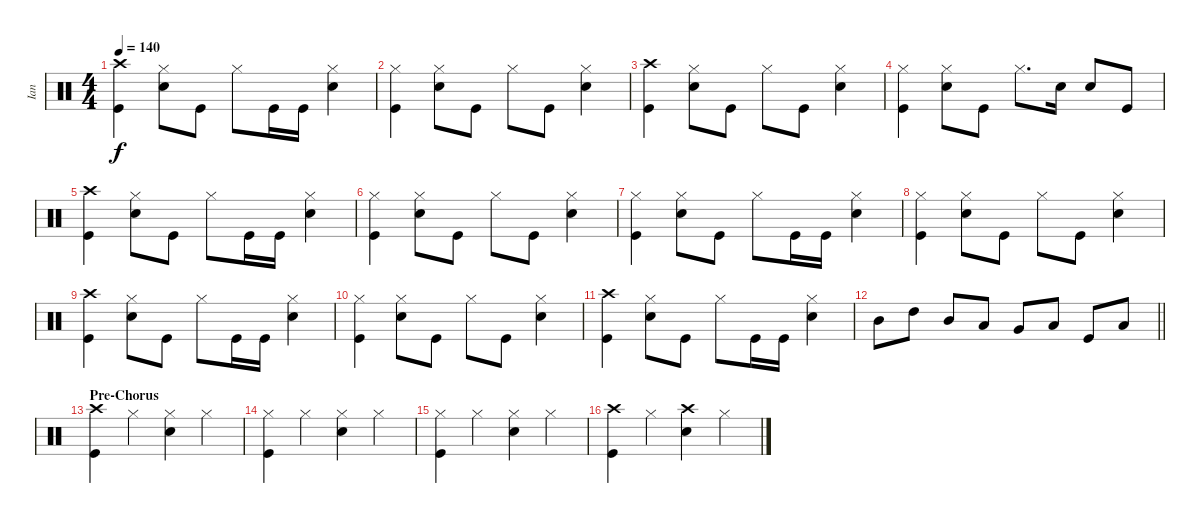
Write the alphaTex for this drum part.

\track ("Ian" "Ian") {instrument percussion}
\staff {score}
\articulation defaults
\ts (4 4)
\tempo 140
\clef neutral
\ks c
("Crash high (hit)" "Kick (hit)").4{dy f} ("Hi-Hat (closed)" "Snare (hit) 2").8 "Kick (hit)".8 "Hi-Hat (closed)".8 "Kick (hit)".16 "Kick (hit)".16 ("Hi-Hat (closed)" "Snare (hit) 2").4 |
("Hi-Hat (closed)" "Kick (hit)").4 ("Hi-Hat (closed)" "Snare (hit) 2").8 "Kick (hit)".8 "Hi-Hat (closed)".8 "Kick (hit)".8 ("Hi-Hat (closed)" "Snare (hit) 2").4 |
("Crash high (hit)" "Kick (hit)").4 ("Hi-Hat (closed)" "Snare (hit) 2").8 "Kick (hit)".8 "Hi-Hat (closed)".8 "Kick (hit)".8 ("Hi-Hat (closed)" "Snare (hit) 2").4 |
("Hi-Hat (closed)" "Kick (hit)").4 ("Hi-Hat (closed)" "Snare (hit) 2").8 "Kick (hit)".8 "Hi-Hat (closed)".8{d} "Snare (hit) 2".16 "Snare (hit) 2".8 "Kick (hit)".8 |
("Crash high (hit)" "Kick (hit)").4 ("Hi-Hat (closed)" "Snare (hit) 2").8 "Kick (hit)".8 "Hi-Hat (closed)".8 "Kick (hit)".16 "Kick (hit)".16 ("Hi-Hat (closed)" "Snare (hit) 2").4 |
("Hi-Hat (closed)" "Kick (hit)").4 ("Hi-Hat (closed)" "Snare (hit) 2").8 "Kick (hit)".8 "Hi-Hat (closed)".8 "Kick (hit)".8 ("Hi-Hat (closed)" "Snare (hit) 2").4 |
("Hi-Hat (closed)" "Kick (hit)").4 ("Hi-Hat (closed)" "Snare (hit) 2").8 "Kick (hit)".8 "Hi-Hat (closed)".8 "Kick (hit)".16 "Kick (hit)".16 ("Hi-Hat (closed)" "Snare (hit) 2").4 |
("Hi-Hat (closed)" "Kick (hit)").4 ("Hi-Hat (closed)" "Snare (hit) 2").8 "Kick (hit)".8 "Hi-Hat (closed)".8 "Kick (hit)".8 ("Hi-Hat (closed)" "Snare (hit) 2").4 |
("Crash high (hit)" "Kick (hit)").4 ("Hi-Hat (closed)" "Snare (hit) 2").8 "Kick (hit)".8 "Hi-Hat (closed)".8 "Kick (hit)".16 "Kick (hit)".16 ("Hi-Hat (closed)" "Snare (hit) 2").4 |
("Hi-Hat (closed)" "Kick (hit)").4 ("Hi-Hat (closed)" "Snare (hit) 2").8 "Kick (hit)".8 "Hi-Hat (closed)".8 "Kick (hit)".8 ("Hi-Hat (closed)" "Snare (hit) 2").4 |
("Crash high (hit)" "Kick (hit)").4 ("Hi-Hat (closed)" "Snare (hit) 2").8 "Kick (hit)".8 "Hi-Hat (closed)".8 "Kick (hit)".16 "Kick (hit)".16 ("Hi-Hat (closed)" "Snare (hit) 2").4 |
\barLineRight lightlight "Mid Tom (hit)".8 "High Tom (hit)".8 "Mid Tom (hit)".8 "Low Tom (hit)".8 "Very Low Tom (hit)".8 "Low Floor Tom (hit)".8 "Kick (hit)".8 "Low Floor Tom (hit)".8
|
\section ("" "Pre-Chorus")
("Crash high (hit)" "Kick (hit)").4 "Hi-Hat (closed)".4 ("Hi-Hat (closed)" "Snare (hit) 2").4 "Hi-Hat (closed)".4 |
("Hi-Hat (closed)" "Kick (hit)").4 "Hi-Hat (closed)".4 ("Hi-Hat (closed)" "Snare (hit) 2").4 "Hi-Hat (closed)".4 |
("Hi-Hat (closed)" "Kick (hit)").4 "Hi-Hat (closed)".4 ("Hi-Hat (closed)" "Snare (hit) 2").4 "Hi-Hat (closed)".4 |
("Crash high (hit)" "Kick (hit)").4 "Hi-Hat (closed)".4 ("Crash high (hit)" "Snare (hit) 2").4 "Hi-Hat (closed)".4
